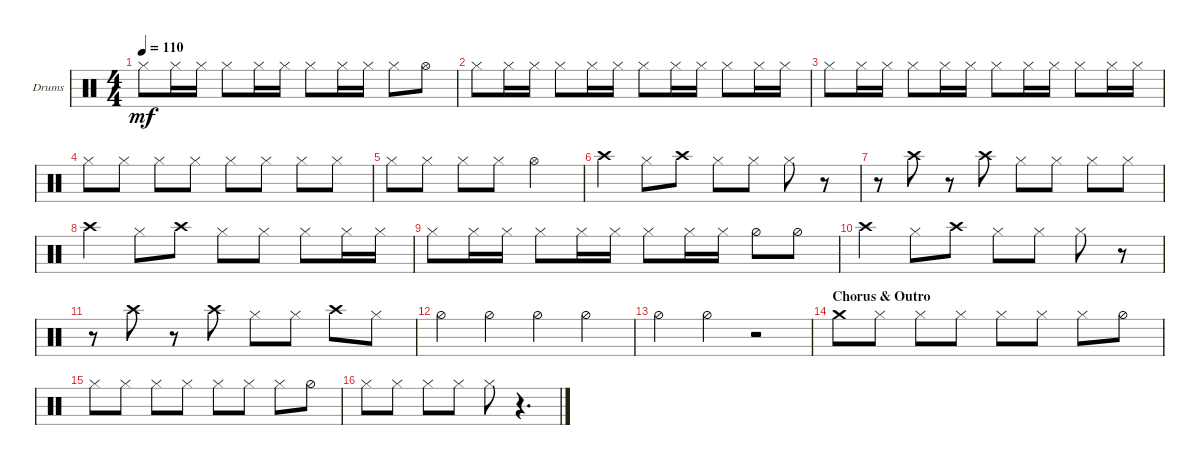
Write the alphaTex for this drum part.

\defaultSystemsLayout 4
\bracketExtendMode groupsimilarinstruments
\firstSystemTrackNameOrientation horizontal
\otherSystemsTrackNameOrientation horizontal
\track ("Drumkit" "Drums") {instrument percussion}
\staff {score}
\articulation defaults
\ts (4 4)
\tempo 110
\clef neutral
\ks c "Hi-Hat (closed)".8{dy mf} "Hi-Hat (closed)".16 "Hi-Hat (closed)".16 "Hi-Hat (closed)".8 "Hi-Hat (closed)".16 "Hi-Hat (closed)".16 "Hi-Hat (closed)".8 "Hi-Hat (closed)".16 "Hi-Hat (closed)".16 "Hi-Hat (closed)".8 "Hi-Hat (open)".8
|
"Hi-Hat (closed)".8 "Hi-Hat (closed)".16 "Hi-Hat (closed)".16 "Hi-Hat (closed)".8 "Hi-Hat (closed)".16 "Hi-Hat (closed)".16 "Hi-Hat (closed)".8 "Hi-Hat (closed)".16 "Hi-Hat (closed)".16 "Hi-Hat (closed)".8 "Hi-Hat (closed)".16 "Hi-Hat (closed)".16 |
"Hi-Hat (closed)".8 "Hi-Hat (closed)".16 "Hi-Hat (closed)".16 "Hi-Hat (closed)".8 "Hi-Hat (closed)".16 "Hi-Hat (closed)".16 "Hi-Hat (closed)".8 "Hi-Hat (closed)".16 "Hi-Hat (closed)".16 "Hi-Hat (closed)".8 "Hi-Hat (closed)".16 "Hi-Hat (closed)".16 |
"Hi-Hat (closed)".8 "Hi-Hat (closed)".8 "Hi-Hat (closed)".8 "Hi-Hat (closed)".8 "Hi-Hat (closed)".8 "Hi-Hat (closed)".8 "Hi-Hat (closed)".8 "Hi-Hat (closed)".8 |
"Hi-Hat (closed)".8 "Hi-Hat (closed)".8 "Hi-Hat (closed)".8 "Hi-Hat (closed)".8 "Hi-Hat (open)".2 |
"Crash high (hit)".4 "Hi-Hat (closed)".8 "Crash high (hit)".8 "Hi-Hat (closed)".8 "Hi-Hat (closed)".8 "Hi-Hat (closed)".8 r.8 |
r.8 "Crash high (hit)".8 r.8 "Crash high (hit)".8 "Hi-Hat (closed)".8 "Hi-Hat (closed)".8 "Hi-Hat (closed)".8 "Hi-Hat (closed)".8 |
"Crash high (hit)".4 "Hi-Hat (closed)".8 "Crash high (hit)".8 "Hi-Hat (closed)".8 "Hi-Hat (closed)".8 "Hi-Hat (closed)".8 "Hi-Hat (closed)".16 "Hi-Hat (closed)".16 |
"Hi-Hat (closed)".8 "Hi-Hat (closed)".16 "Hi-Hat (closed)".16 "Hi-Hat (closed)".8 "Hi-Hat (closed)".16 "Hi-Hat (closed)".16 "Hi-Hat (closed)".8 "Hi-Hat (closed)".16 "Hi-Hat (closed)".16 "Hi-Hat (half)".8 "Hi-Hat (half)".8 |
"Crash high (hit)".4 "Hi-Hat (closed)".8 "Crash high (hit)".8 "Hi-Hat (closed)".8 "Hi-Hat (closed)".8 "Hi-Hat (closed)".8 r.8 |
r.8 "Crash high (hit)".8 r.8 "Crash high (hit)".8 "Hi-Hat (closed)".8 "Hi-Hat (closed)".8 "Crash high (hit)".8 "Hi-Hat (closed)".8 |
"Hi-Hat (half)".4 "Hi-Hat (half)".4 "Hi-Hat (half)".4 "Hi-Hat (half)".4 |
"Hi-Hat (half)".4 "Hi-Hat (half)".4 r.2 |
\section ("" "Chorus & Outro")
"Crash medium (hit)".8 "Hi-Hat (closed)".8 "Hi-Hat (closed)".8 "Hi-Hat (closed)".8 "Hi-Hat (closed)".8 "Hi-Hat (closed)".8 "Hi-Hat (closed)".8 "Hi-Hat (half)".8 |
"Hi-Hat (closed)".8 "Hi-Hat (closed)".8 "Hi-Hat (closed)".8 "Hi-Hat (closed)".8 "Hi-Hat (closed)".8 "Hi-Hat (closed)".8 "Hi-Hat (closed)".8 "Hi-Hat (half)".8 |
"Hi-Hat (closed)".8 "Hi-Hat (closed)".8 "Hi-Hat (closed)".8 "Hi-Hat (closed)".8 "Hi-Hat (closed)".8 r.4{d}
